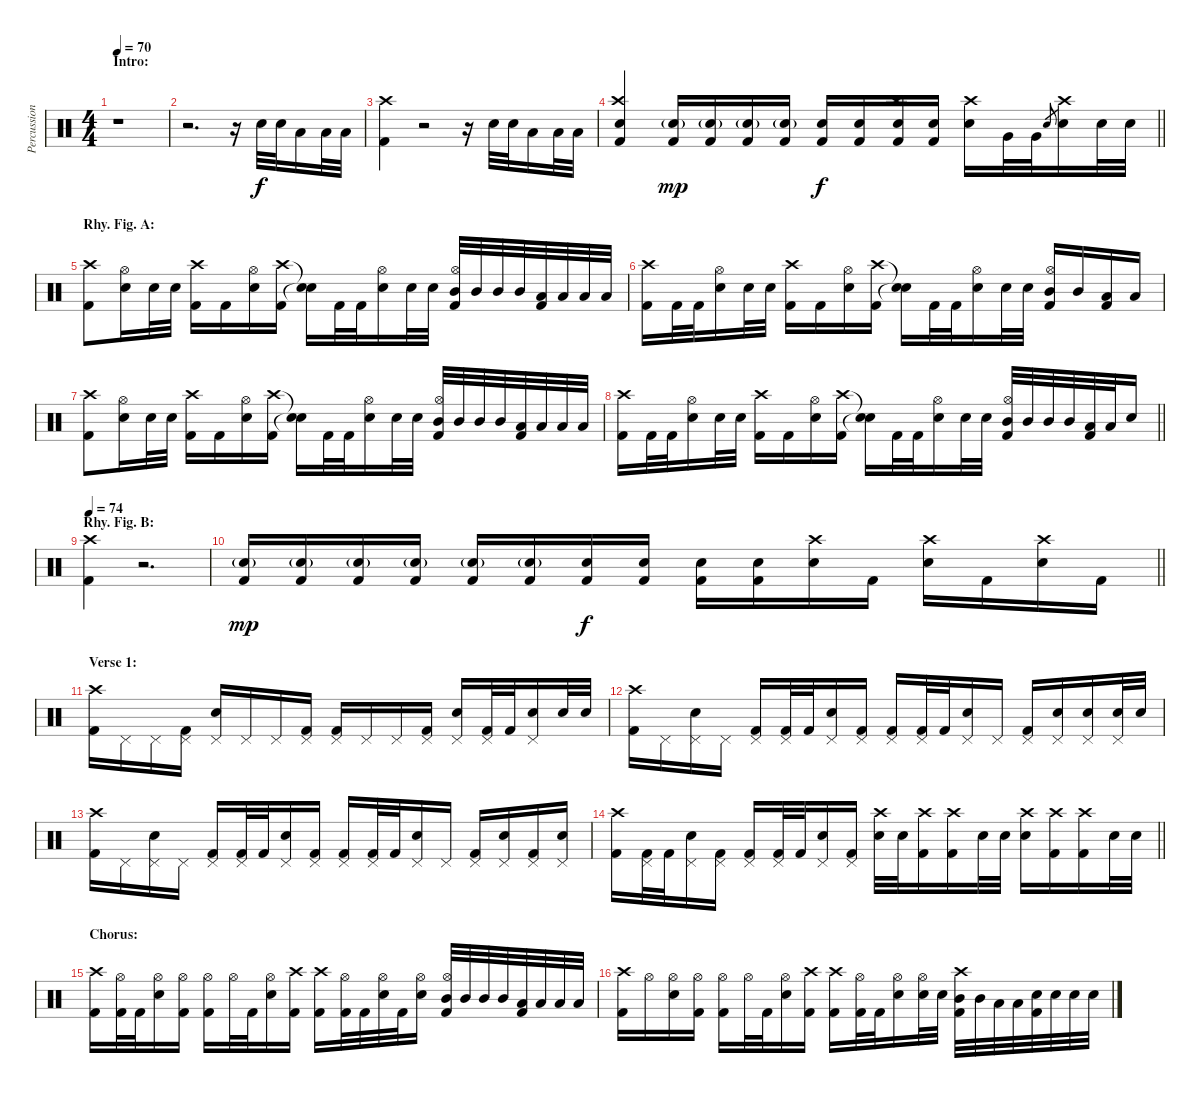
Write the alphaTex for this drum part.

\track ("Percussion" "Percussion") {instrument percussion}
\staff {score}
\articulation defaults
\ts (4 4)
\section ("" "Intro:")
\tempo 70
\clef neutral
\ks c
r.1{dy f} |
r.2{d} r.16 "Electric Snare (hit)".32 "Electric Snare (hit)".32 "Low Tom (hit)".16 "Low Tom (hit)".32 "Low Tom (hit)".32 |
("Crash high (hit)" "Kick (hit) 2").4 r.2 r.16 "Electric Snare (hit)".32 "Electric Snare (hit)".32 "Low Tom (hit)".16 "Low Tom (hit)".32 "Low Tom (hit)".32 |
\barLineRight lightlight
("Crash high (hit)" "Electric Snare (hit)" "Kick (hit) 2").4 ("Electric Snare (hit)"{g} "Kick (hit) 2").16{dy mp} ("Electric Snare (hit)"{g} "Kick (hit) 2").16 ("Electric Snare (hit)"{g} "Kick (hit) 2").16 ("Electric Snare (hit)"{g} "Kick (hit) 2").16 ("Electric Snare (hit)" "Kick (hit) 2").16{dy f} ("Electric Snare (hit)" "Kick (hit) 2").16 ("Crash high (hit)" "Electric Snare (hit)" "Kick (hit) 2").16 ("Electric Snare (hit)" "Kick (hit) 2").16 ("Crash high (hit)" "Electric Snare (hit)").16 "Very Low Tom (hit)".32 "Very Low Tom (hit)".32 "Electric Snare (hit)".8{gr} ("Crash high (hit)" "Electric Snare (hit)").16 "Electric Snare (hit)".32 "Electric Snare (hit)".32 |
\section ("" "Rhy. Fig. A:")
("Crash high (hit)" "Kick (hit) 2").8 ("Hi-Hat (open)" "Electric Snare (hit)").16 "Electric Snare (hit)".32 "Electric Snare (hit)".32 ("Crash high (hit)" "Kick (hit) 2").16 "Kick (hit) 2".16 ("Hi-Hat (open)" "Electric Snare (hit)").16 ("Crash high (hit)" "Kick (hit) 2").16 ("Snare (hit)"{t} "Snare (hit)"{t}).16 "Kick (hit) 2".32 "Kick (hit) 2".32 ("Hi-Hat (open)" "Electric Snare (hit)").16 "Electric Snare (hit)".32 "Electric Snare (hit)".32 ("Hi-Hat (open)" "Mid Tom (hit)" "Kick (hit) 2").32 "Mid Tom (hit)".32 "Mid Tom (hit)".32 "Mid Tom (hit)".32 ("Low Tom (hit)" "Kick (hit) 2").32 "Low Tom (hit)".32 "Low Tom (hit)".32 "Low Tom (hit)".32 |
("Crash high (hit)" "Kick (hit) 2").16 "Kick (hit) 2".32 "Kick (hit) 2".32 ("Hi-Hat (open)" "Electric Snare (hit)").16 "Electric Snare (hit)".32 "Electric Snare (hit)".32 ("Crash high (hit)" "Kick (hit) 2").16 "Kick (hit) 2".16 ("Hi-Hat (open)" "Electric Snare (hit)").16 ("Crash high (hit)" "Kick (hit) 2").16 ("Snare (hit)"{t} "Snare (hit)"{t}).16 "Kick (hit) 2".32 "Kick (hit) 2".32 ("Hi-Hat (open)" "Electric Snare (hit)").16 "Electric Snare (hit)".32 "Electric Snare (hit)".32 ("Hi-Hat (open)" "Mid Tom (hit)" "Kick (hit) 2").16 "Mid Tom (hit)".16 ("Low Tom (hit)" "Kick (hit) 2").16 "Low Tom (hit)".16 |
("Crash high (hit)" "Kick (hit) 2").8 ("Hi-Hat (open)" "Electric Snare (hit)").16 "Electric Snare (hit)".32 "Electric Snare (hit)".32 ("Crash high (hit)" "Kick (hit) 2").16 "Kick (hit) 2".16 ("Hi-Hat (open)" "Electric Snare (hit)").16 ("Crash high (hit)" "Kick (hit) 2").16 ("Snare (hit)"{t} "Snare (hit)"{t}).16 "Kick (hit) 2".32 "Kick (hit) 2".32 ("Hi-Hat (open)" "Electric Snare (hit)").16 "Electric Snare (hit)".32 "Electric Snare (hit)".32 ("Hi-Hat (open)" "Mid Tom (hit)" "Kick (hit) 2").32 "Mid Tom (hit)".32 "Mid Tom (hit)".32 "Mid Tom (hit)".32 ("Low Tom (hit)" "Kick (hit) 2").32 "Low Tom (hit)".32 "Low Tom (hit)".32 "Low Tom (hit)".32 |
\barLineRight lightlight
("Crash high (hit)" "Kick (hit) 2").16 "Kick (hit) 2".32 "Kick (hit) 2".32 ("Hi-Hat (open)" "Electric Snare (hit)").16 "Electric Snare (hit)".32 "Electric Snare (hit)".32 ("Crash high (hit)" "Kick (hit) 2").16 "Kick (hit) 2".16 ("Hi-Hat (open)" "Electric Snare (hit)").16 ("Crash high (hit)" "Kick (hit) 2").16 ("Snare (hit)"{t} "Snare (hit)"{t}).16 "Kick (hit) 2".32 "Kick (hit) 2".32 ("Hi-Hat (open)" "Electric Snare (hit)").16 "Electric Snare (hit)".32 "Electric Snare (hit)".32 ("Hi-Hat (open)" "Mid Tom (hit)" "Kick (hit) 2").32 "Mid Tom (hit)".32 "Mid Tom (hit)".32 "Mid Tom (hit)".32 ("Low Tom (hit)" "Kick (hit) 2").32 "Low Tom (hit)".32 "Electric Snare (hit)".16 |
\section ("" "Rhy. Fig. B:")
\tempo 74
("Crash high (hit)" "Kick (hit) 2").4 r.2{d} |
\barLineRight lightlight
("Electric Snare (hit)"{g} "Kick (hit) 2").16{dy mp} ("Electric Snare (hit)"{g} "Kick (hit) 2").16 ("Electric Snare (hit)"{g} "Kick (hit) 2").16 ("Electric Snare (hit)"{g} "Kick (hit) 2").16 ("Electric Snare (hit)"{g} "Kick (hit) 2").16 ("Electric Snare (hit)"{g} "Kick (hit) 2").16 ("Electric Snare (hit)" "Kick (hit) 2").16{dy f} ("Electric Snare (hit)" "Kick (hit) 2").16 ("Electric Snare (hit)" "Kick (hit) 2").16 ("Electric Snare (hit)" "Kick (hit) 2").16 ("Crash high (hit)" "Electric Snare (hit)").16 "Kick (hit) 2".16 ("Crash high (hit)" "Electric Snare (hit)").16 "Kick (hit) 2".16 ("Crash high (hit)" "Electric Snare (hit)").16 "Kick (hit) 2".16 |
\section ("" "Verse 1:")
("Crash high (hit)" "Kick (hit) 2").16 "Pedal Hi-Hat (hit)".16 "Pedal Hi-Hat (hit)".16 ("Pedal Hi-Hat (hit)" "Kick (hit) 2").16 ("Pedal Hi-Hat (hit)" "Electric Snare (hit)").16 "Pedal Hi-Hat (hit)".16 "Pedal Hi-Hat (hit)".16 ("Pedal Hi-Hat (hit)" "Kick (hit) 2").16 ("Pedal Hi-Hat (hit)" "Kick (hit) 2").16 "Pedal Hi-Hat (hit)".16 "Pedal Hi-Hat (hit)".16 ("Pedal Hi-Hat (hit)" "Kick (hit) 2").16 ("Pedal Hi-Hat (hit)" "Electric Snare (hit)").16 ("Pedal Hi-Hat (hit)" "Kick (hit) 2").32 "Kick (hit) 2".32 ("Pedal Hi-Hat (hit)" "Electric Snare (hit)").16 "Electric Snare (hit)".32 "Electric Snare (hit)".32 |
("Crash high (hit)" "Kick (hit) 2").16 "Pedal Hi-Hat (hit)".16 ("Pedal Hi-Hat (hit)" "Electric Snare (hit)").16 "Pedal Hi-Hat (hit)".16 ("Pedal Hi-Hat (hit)" "Kick (hit) 2").16 ("Pedal Hi-Hat (hit)" "Kick (hit) 2").32 "Kick (hit) 2".32 ("Pedal Hi-Hat (hit)" "Electric Snare (hit)").16 ("Pedal Hi-Hat (hit)" "Kick (hit) 2").16 ("Pedal Hi-Hat (hit)" "Kick (hit) 2").16 ("Pedal Hi-Hat (hit)" "Kick (hit) 2").32 "Kick (hit) 2".32 ("Pedal Hi-Hat (hit)" "Electric Snare (hit)").16 "Pedal Hi-Hat (hit)".16 ("Pedal Hi-Hat (hit)" "Kick (hit) 2").16 ("Pedal Hi-Hat (hit)" "Electric Snare (hit)").16 ("Pedal Hi-Hat (hit)" "Electric Snare (hit)").16 ("Pedal Hi-Hat (hit)" "Electric Snare (hit)").32 "Electric Snare (hit)".32 |
("Crash high (hit)" "Kick (hit) 2").16 "Pedal Hi-Hat (hit)".16 ("Pedal Hi-Hat (hit)" "Electric Snare (hit)").16 "Pedal Hi-Hat (hit)".16 ("Pedal Hi-Hat (hit)" "Kick (hit) 2").16 ("Pedal Hi-Hat (hit)" "Kick (hit) 2").32 "Kick (hit) 2".32 ("Pedal Hi-Hat (hit)" "Electric Snare (hit)").16 ("Pedal Hi-Hat (hit)" "Kick (hit) 2").16 ("Pedal Hi-Hat (hit)" "Kick (hit) 2").16 ("Pedal Hi-Hat (hit)" "Kick (hit) 2").32 "Kick (hit) 2".32 ("Pedal Hi-Hat (hit)" "Electric Snare (hit)").16 "Pedal Hi-Hat (hit)".16 ("Pedal Hi-Hat (hit)" "Kick (hit) 2").16 ("Pedal Hi-Hat (hit)" "Electric Snare (hit)").16 ("Pedal Hi-Hat (hit)" "Kick (hit) 2").16 ("Pedal Hi-Hat (hit)" "Electric Snare (hit)").16 |
\barLineRight lightlight
("Crash high (hit)" "Kick (hit) 2").16 ("Pedal Hi-Hat (hit)" "Kick (hit) 2").32 "Kick (hit) 2".32 ("Pedal Hi-Hat (hit)" "Electric Snare (hit)").16 ("Pedal Hi-Hat (hit)" "Kick (hit) 2").16 ("Pedal Hi-Hat (hit)" "Kick (hit) 2").16 ("Pedal Hi-Hat (hit)" "Kick (hit) 2").32 "Kick (hit) 2".32 ("Pedal Hi-Hat (hit)" "Electric Snare (hit)").16 ("Pedal Hi-Hat (hit)" "Kick (hit) 2").16 ("Crash high (hit)" "Electric Snare (hit)").32 "Electric Snare (hit)".32 ("Crash high (hit)" "Kick (hit) 2").16 ("Crash high (hit)" "Kick (hit) 2").16 "Electric Snare (hit)".32 "Electric Snare (hit)".32 ("Crash high (hit)" "Electric Snare (hit)").16 ("Crash high (hit)" "Kick (hit) 2").16 ("Crash high (hit)" "Kick (hit) 2").16 "Electric Snare (hit)".32 "Electric Snare (hit)".32 |
\section ("" "Chorus:")
("Crash high (hit)" "Kick (hit) 2").16 ("Hi-Hat (open)" "Kick (hit) 2").32 "Kick (hit) 2".32 ("Hi-Hat (open)" "Electric Snare (hit)").16 ("Hi-Hat (open)" "Kick (hit) 2").16 ("Hi-Hat (open)" "Kick (hit) 2").16 "Hi-Hat (open)".32 "Kick (hit) 2".32 ("Hi-Hat (open)" "Electric Snare (hit)").16 ("Crash high (hit)" "Kick (hit) 2").16 ("Crash high (hit)" "Kick (hit) 2").16 ("Hi-Hat (open)" "Kick (hit) 2").32 "Kick (hit) 2".32 ("Hi-Hat (open)" "Electric Snare (hit)").32 "Kick (hit) 2".32 ("Hi-Hat (open)" "Electric Snare (hit)").16 ("Hi-Hat (open)" "Mid Tom (hit)" "Kick (hit) 2").32 "Mid Tom (hit)".32 "Mid Tom (hit)".32 "Mid Tom (hit)".32 ("Low Tom (hit)" "Kick (hit) 2").32 "Low Tom (hit)".32 "Low Tom (hit)".32 "Low Tom (hit)".32 |
("Crash high (hit)" "Kick (hit) 2").16 "Hi-Hat (open)".16 ("Hi-Hat (open)" "Electric Snare (hit)").16 ("Hi-Hat (open)" "Kick (hit) 2").16 ("Hi-Hat (open)" "Kick (hit) 2").16 "Hi-Hat (open)".32 "Kick (hit) 2".32 ("Hi-Hat (open)" "Electric Snare (hit)").16 ("Crash high (hit)" "Kick (hit) 2").16 ("Crash high (hit)" "Kick (hit) 2").16 ("Hi-Hat (open)" "Kick (hit) 2").32 "Kick (hit) 2".32 ("Hi-Hat (open)" "Electric Snare (hit)").16 ("Hi-Hat (open)" "Electric Snare (hit)").32 "Electric Snare (hit)".32 ("Crash high (hit)" "Mid Tom (hit)" "Kick (hit) 2").32 "Mid Tom (hit)".32 "Low Tom (hit)".32 "Low Tom (hit)".32 ("Electric Snare (hit)" "Kick (hit) 2").32 "Electric Snare (hit)".32 "Electric Snare (hit)".32 "Electric Snare (hit)".32
